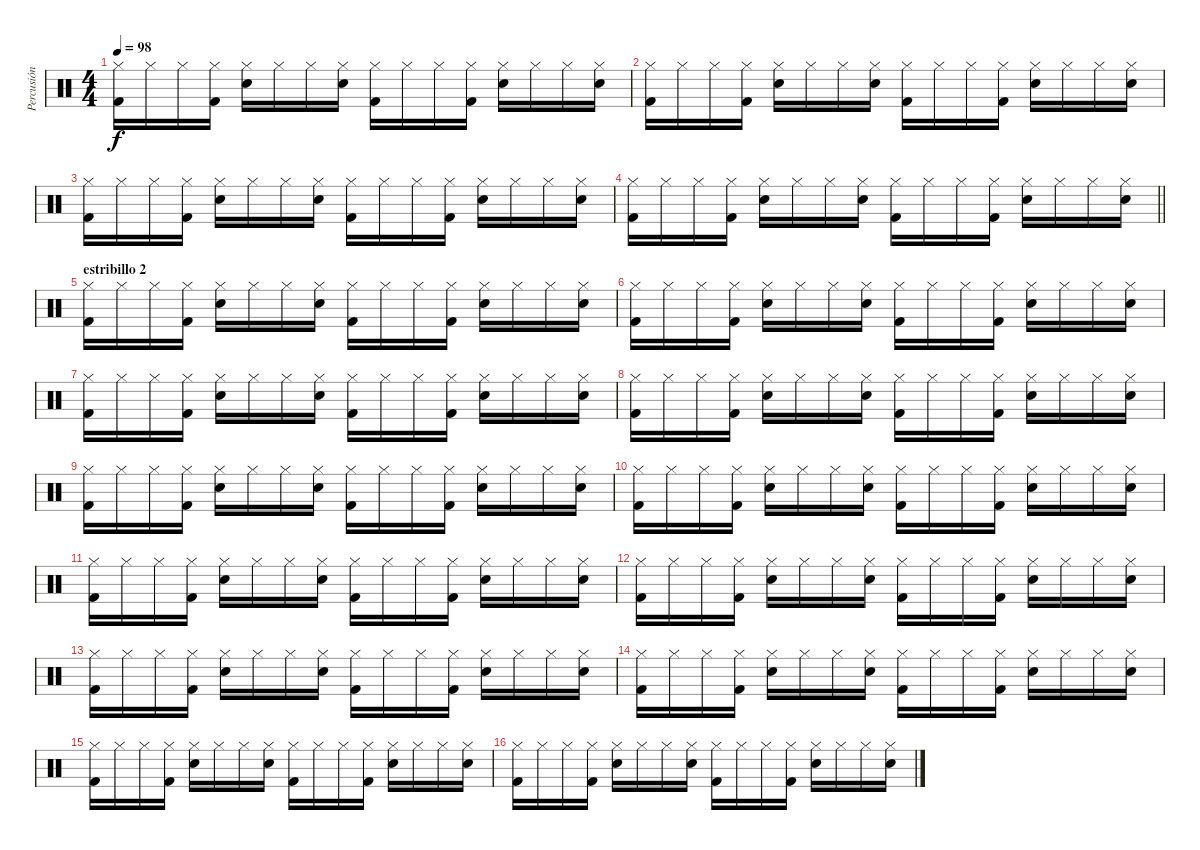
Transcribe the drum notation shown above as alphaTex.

\track ("Percusión" "Percusión") {instrument percussion}
\staff {score}
\articulation defaults
\ts (4 4)
\tempo 98
\clef neutral
\ks c
("Hi-Hat (closed)" "Kick (hit) 2").16{dy f} "Hi-Hat (closed)".16 "Hi-Hat (closed)".16 ("Hi-Hat (closed)" "Kick (hit) 2").16 ("Hi-Hat (closed)" "Snare (hit) 2").16 "Hi-Hat (closed)".16 "Hi-Hat (closed)".16 ("Hi-Hat (closed)" "Snare (hit) 2").16 ("Hi-Hat (closed)" "Kick (hit) 2").16 "Hi-Hat (closed)".16 "Hi-Hat (closed)".16 ("Hi-Hat (closed)" "Kick (hit) 2").16 ("Hi-Hat (closed)" "Snare (hit) 2").16 "Hi-Hat (closed)".16 "Hi-Hat (closed)".16 ("Hi-Hat (closed)" "Snare (hit) 2").16 |
("Hi-Hat (closed)" "Kick (hit) 2").16 "Hi-Hat (closed)".16 "Hi-Hat (closed)".16 ("Hi-Hat (closed)" "Kick (hit) 2").16 ("Hi-Hat (closed)" "Snare (hit) 2").16 "Hi-Hat (closed)".16 "Hi-Hat (closed)".16 ("Hi-Hat (closed)" "Snare (hit) 2").16 ("Hi-Hat (closed)" "Kick (hit) 2").16 "Hi-Hat (closed)".16 "Hi-Hat (closed)".16 ("Hi-Hat (closed)" "Kick (hit) 2").16 ("Hi-Hat (closed)" "Snare (hit) 2").16 "Hi-Hat (closed)".16 "Hi-Hat (closed)".16 ("Hi-Hat (closed)" "Snare (hit) 2").16 |
("Hi-Hat (closed)" "Kick (hit) 2").16 "Hi-Hat (closed)".16 "Hi-Hat (closed)".16 ("Hi-Hat (closed)" "Kick (hit) 2").16 ("Hi-Hat (closed)" "Snare (hit) 2").16 "Hi-Hat (closed)".16 "Hi-Hat (closed)".16 ("Hi-Hat (closed)" "Snare (hit) 2").16 ("Hi-Hat (closed)" "Kick (hit) 2").16 "Hi-Hat (closed)".16 "Hi-Hat (closed)".16 ("Hi-Hat (closed)" "Kick (hit) 2").16 ("Hi-Hat (closed)" "Snare (hit) 2").16 "Hi-Hat (closed)".16 "Hi-Hat (closed)".16 ("Hi-Hat (closed)" "Snare (hit) 2").16 |
\barLineRight lightlight
("Hi-Hat (closed)" "Kick (hit) 2").16 "Hi-Hat (closed)".16 "Hi-Hat (closed)".16 ("Hi-Hat (closed)" "Kick (hit) 2").16 ("Hi-Hat (closed)" "Snare (hit) 2").16 "Hi-Hat (closed)".16 "Hi-Hat (closed)".16 ("Hi-Hat (closed)" "Snare (hit) 2").16 ("Hi-Hat (closed)" "Kick (hit) 2").16 "Hi-Hat (closed)".16 "Hi-Hat (closed)".16 ("Hi-Hat (closed)" "Kick (hit) 2").16 ("Hi-Hat (closed)" "Snare (hit) 2").16 "Hi-Hat (closed)".16 "Hi-Hat (closed)".16 ("Hi-Hat (closed)" "Snare (hit) 2").16 |
\section ("" "estribillo 2")
("Hi-Hat (closed)" "Kick (hit) 2").16 "Hi-Hat (closed)".16 "Hi-Hat (closed)".16 ("Hi-Hat (closed)" "Kick (hit) 2").16 ("Hi-Hat (closed)" "Snare (hit) 2").16 "Hi-Hat (closed)".16 "Hi-Hat (closed)".16 ("Hi-Hat (closed)" "Snare (hit) 2").16 ("Hi-Hat (closed)" "Kick (hit) 2").16 "Hi-Hat (closed)".16 "Hi-Hat (closed)".16 ("Hi-Hat (closed)" "Kick (hit) 2").16 ("Hi-Hat (closed)" "Snare (hit) 2").16 "Hi-Hat (closed)".16 "Hi-Hat (closed)".16 ("Hi-Hat (closed)" "Snare (hit) 2").16 |
("Hi-Hat (closed)" "Kick (hit) 2").16 "Hi-Hat (closed)".16 "Hi-Hat (closed)".16 ("Hi-Hat (closed)" "Kick (hit) 2").16 ("Hi-Hat (closed)" "Snare (hit) 2").16 "Hi-Hat (closed)".16 "Hi-Hat (closed)".16 ("Hi-Hat (closed)" "Snare (hit) 2").16 ("Hi-Hat (closed)" "Kick (hit) 2").16 "Hi-Hat (closed)".16 "Hi-Hat (closed)".16 ("Hi-Hat (closed)" "Kick (hit) 2").16 ("Hi-Hat (closed)" "Snare (hit) 2").16 "Hi-Hat (closed)".16 "Hi-Hat (closed)".16 ("Hi-Hat (closed)" "Snare (hit) 2").16 |
("Hi-Hat (closed)" "Kick (hit) 2").16 "Hi-Hat (closed)".16 "Hi-Hat (closed)".16 ("Hi-Hat (closed)" "Kick (hit) 2").16 ("Hi-Hat (closed)" "Snare (hit) 2").16 "Hi-Hat (closed)".16 "Hi-Hat (closed)".16 ("Hi-Hat (closed)" "Snare (hit) 2").16 ("Hi-Hat (closed)" "Kick (hit) 2").16 "Hi-Hat (closed)".16 "Hi-Hat (closed)".16 ("Hi-Hat (closed)" "Kick (hit) 2").16 ("Hi-Hat (closed)" "Snare (hit) 2").16 "Hi-Hat (closed)".16 "Hi-Hat (closed)".16 ("Hi-Hat (closed)" "Snare (hit) 2").16 |
("Hi-Hat (closed)" "Kick (hit) 2").16 "Hi-Hat (closed)".16 "Hi-Hat (closed)".16 ("Hi-Hat (closed)" "Kick (hit) 2").16 ("Hi-Hat (closed)" "Snare (hit) 2").16 "Hi-Hat (closed)".16 "Hi-Hat (closed)".16 ("Hi-Hat (closed)" "Snare (hit) 2").16 ("Hi-Hat (closed)" "Kick (hit) 2").16 "Hi-Hat (closed)".16 "Hi-Hat (closed)".16 ("Hi-Hat (closed)" "Kick (hit) 2").16 ("Hi-Hat (closed)" "Snare (hit) 2").16 "Hi-Hat (closed)".16 "Hi-Hat (closed)".16 ("Hi-Hat (closed)" "Snare (hit) 2").16 |
("Hi-Hat (closed)" "Kick (hit) 2").16 "Hi-Hat (closed)".16 "Hi-Hat (closed)".16 ("Hi-Hat (closed)" "Kick (hit) 2").16 ("Hi-Hat (closed)" "Snare (hit) 2").16 "Hi-Hat (closed)".16 "Hi-Hat (closed)".16 ("Hi-Hat (closed)" "Snare (hit) 2").16 ("Hi-Hat (closed)" "Kick (hit) 2").16 "Hi-Hat (closed)".16 "Hi-Hat (closed)".16 ("Hi-Hat (closed)" "Kick (hit) 2").16 ("Hi-Hat (closed)" "Snare (hit) 2").16 "Hi-Hat (closed)".16 "Hi-Hat (closed)".16 ("Hi-Hat (closed)" "Snare (hit) 2").16 |
("Hi-Hat (closed)" "Kick (hit) 2").16 "Hi-Hat (closed)".16 "Hi-Hat (closed)".16 ("Hi-Hat (closed)" "Kick (hit) 2").16 ("Hi-Hat (closed)" "Snare (hit) 2").16 "Hi-Hat (closed)".16 "Hi-Hat (closed)".16 ("Hi-Hat (closed)" "Snare (hit) 2").16 ("Hi-Hat (closed)" "Kick (hit) 2").16 "Hi-Hat (closed)".16 "Hi-Hat (closed)".16 ("Hi-Hat (closed)" "Kick (hit) 2").16 ("Hi-Hat (closed)" "Snare (hit) 2").16 "Hi-Hat (closed)".16 "Hi-Hat (closed)".16 ("Hi-Hat (closed)" "Snare (hit) 2").16 |
("Hi-Hat (closed)" "Kick (hit) 2").16 "Hi-Hat (closed)".16 "Hi-Hat (closed)".16 ("Hi-Hat (closed)" "Kick (hit) 2").16 ("Hi-Hat (closed)" "Snare (hit) 2").16 "Hi-Hat (closed)".16 "Hi-Hat (closed)".16 ("Hi-Hat (closed)" "Snare (hit) 2").16 ("Hi-Hat (closed)" "Kick (hit) 2").16 "Hi-Hat (closed)".16 "Hi-Hat (closed)".16 ("Hi-Hat (closed)" "Kick (hit) 2").16 ("Hi-Hat (closed)" "Snare (hit) 2").16 "Hi-Hat (closed)".16 "Hi-Hat (closed)".16 ("Hi-Hat (closed)" "Snare (hit) 2").16 |
("Hi-Hat (closed)" "Kick (hit) 2").16 "Hi-Hat (closed)".16 "Hi-Hat (closed)".16 ("Hi-Hat (closed)" "Kick (hit) 2").16 ("Hi-Hat (closed)" "Snare (hit) 2").16 "Hi-Hat (closed)".16 "Hi-Hat (closed)".16 ("Hi-Hat (closed)" "Snare (hit) 2").16 ("Hi-Hat (closed)" "Kick (hit) 2").16 "Hi-Hat (closed)".16 "Hi-Hat (closed)".16 ("Hi-Hat (closed)" "Kick (hit) 2").16 ("Hi-Hat (closed)" "Snare (hit) 2").16 "Hi-Hat (closed)".16 "Hi-Hat (closed)".16 ("Hi-Hat (closed)" "Snare (hit) 2").16 |
("Hi-Hat (closed)" "Kick (hit) 2").16 "Hi-Hat (closed)".16 "Hi-Hat (closed)".16 ("Hi-Hat (closed)" "Kick (hit) 2").16 ("Hi-Hat (closed)" "Snare (hit) 2").16 "Hi-Hat (closed)".16 "Hi-Hat (closed)".16 ("Hi-Hat (closed)" "Snare (hit) 2").16 ("Hi-Hat (closed)" "Kick (hit) 2").16 "Hi-Hat (closed)".16 "Hi-Hat (closed)".16 ("Hi-Hat (closed)" "Kick (hit) 2").16 ("Hi-Hat (closed)" "Snare (hit) 2").16 "Hi-Hat (closed)".16 "Hi-Hat (closed)".16 ("Hi-Hat (closed)" "Snare (hit) 2").16 |
("Hi-Hat (closed)" "Kick (hit) 2").16 "Hi-Hat (closed)".16 "Hi-Hat (closed)".16 ("Hi-Hat (closed)" "Kick (hit) 2").16 ("Hi-Hat (closed)" "Snare (hit) 2").16 "Hi-Hat (closed)".16 "Hi-Hat (closed)".16 ("Hi-Hat (closed)" "Snare (hit) 2").16 ("Hi-Hat (closed)" "Kick (hit) 2").16 "Hi-Hat (closed)".16 "Hi-Hat (closed)".16 ("Hi-Hat (closed)" "Kick (hit) 2").16 ("Hi-Hat (closed)" "Snare (hit) 2").16 "Hi-Hat (closed)".16 "Hi-Hat (closed)".16 ("Hi-Hat (closed)" "Snare (hit) 2").16 |
("Hi-Hat (closed)" "Kick (hit) 2").16 "Hi-Hat (closed)".16 "Hi-Hat (closed)".16 ("Hi-Hat (closed)" "Kick (hit) 2").16 ("Hi-Hat (closed)" "Snare (hit) 2").16 "Hi-Hat (closed)".16 "Hi-Hat (closed)".16 ("Hi-Hat (closed)" "Snare (hit) 2").16 ("Hi-Hat (closed)" "Kick (hit) 2").16 "Hi-Hat (closed)".16 "Hi-Hat (closed)".16 ("Hi-Hat (closed)" "Kick (hit) 2").16 ("Hi-Hat (closed)" "Snare (hit) 2").16 "Hi-Hat (closed)".16 "Hi-Hat (closed)".16 ("Hi-Hat (closed)" "Snare (hit) 2").16 |
("Hi-Hat (closed)" "Kick (hit) 2").16 "Hi-Hat (closed)".16 "Hi-Hat (closed)".16 ("Hi-Hat (closed)" "Kick (hit) 2").16 ("Hi-Hat (closed)" "Snare (hit) 2").16 "Hi-Hat (closed)".16 "Hi-Hat (closed)".16 ("Hi-Hat (closed)" "Snare (hit) 2").16 ("Hi-Hat (closed)" "Kick (hit) 2").16 "Hi-Hat (closed)".16 "Hi-Hat (closed)".16 ("Hi-Hat (closed)" "Kick (hit) 2").16 ("Hi-Hat (closed)" "Snare (hit) 2").16 "Hi-Hat (closed)".16 "Hi-Hat (closed)".16 ("Hi-Hat (closed)" "Snare (hit) 2").16
